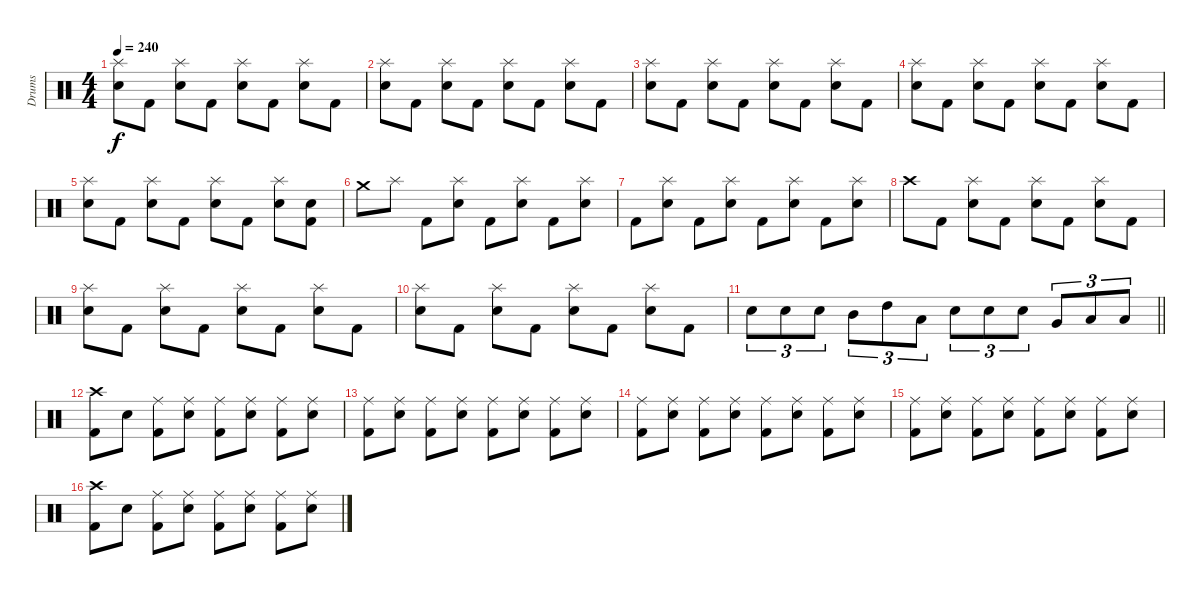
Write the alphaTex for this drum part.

\track ("Drums" "Drums") {instrument percussion}
\staff {score}
\articulation defaults
\ts (4 4)
\tempo 240
\clef neutral
\ks c
("Splash (hit)" "Electric Snare (hit)").8{dy f} "Kick (hit) 2".8 ("Splash (hit)" "Electric Snare (hit)").8 "Kick (hit) 2".8 ("Splash (hit)" "Electric Snare (hit)").8 "Kick (hit) 2".8 ("Splash (hit)" "Electric Snare (hit)").8 "Kick (hit) 2".8 |
("Splash (hit)" "Electric Snare (hit)").8 "Kick (hit) 2".8 ("Splash (hit)" "Electric Snare (hit)").8 "Kick (hit) 2".8 ("Splash (hit)" "Electric Snare (hit)").8 "Kick (hit) 2".8 ("Splash (hit)" "Electric Snare (hit)").8 "Kick (hit) 2".8 |
("Splash (hit)" "Electric Snare (hit)").8 "Kick (hit) 2".8 ("Splash (hit)" "Electric Snare (hit)").8 "Kick (hit) 2".8 ("Splash (hit)" "Electric Snare (hit)").8 "Kick (hit) 2".8 ("Splash (hit)" "Electric Snare (hit)").8 "Kick (hit) 2".8 |
("Splash (hit)" "Electric Snare (hit)").8 "Kick (hit) 2".8 ("Splash (hit)" "Electric Snare (hit)").8 "Kick (hit) 2".8 ("Splash (hit)" "Electric Snare (hit)").8 "Kick (hit) 2".8 ("Splash (hit)" "Electric Snare (hit)").8 "Kick (hit) 2".8 |
("Splash (hit)" "Electric Snare (hit)").8 "Kick (hit) 2".8 ("Splash (hit)" "Electric Snare (hit)").8 "Kick (hit) 2".8 ("Splash (hit)" "Electric Snare (hit)").8 "Kick (hit) 2".8 ("Splash (hit)" "Electric Snare (hit)").8 ("Electric Snare (hit)" "Kick (hit) 2").8 |
"Crash medium (hit)".8 "Splash (hit)".8 "Kick (hit) 2".8 ("Splash (hit)" "Electric Snare (hit)").8 "Kick (hit) 2".8 ("Splash (hit)" "Electric Snare (hit)").8 "Kick (hit) 2".8 ("Splash (hit)" "Electric Snare (hit)").8 |
"Kick (hit) 2".8 ("Splash (hit)" "Electric Snare (hit)").8 "Kick (hit) 2".8 ("Splash (hit)" "Electric Snare (hit)").8 "Kick (hit) 2".8 ("Splash (hit)" "Electric Snare (hit)").8 "Kick (hit) 2".8 ("Splash (hit)" "Electric Snare (hit)").8 |
"Crash high (hit)".8 "Kick (hit) 2".8 ("Splash (hit)" "Electric Snare (hit)").8 "Kick (hit) 2".8 ("Splash (hit)" "Electric Snare (hit)").8 "Kick (hit) 2".8 ("Splash (hit)" "Electric Snare (hit)").8 "Kick (hit) 2".8 |
("Splash (hit)" "Electric Snare (hit)").8 "Kick (hit) 2".8 ("Splash (hit)" "Electric Snare (hit)").8 "Kick (hit) 2".8 ("Splash (hit)" "Electric Snare (hit)").8 "Kick (hit) 2".8 ("Splash (hit)" "Electric Snare (hit)").8 "Kick (hit) 2".8 |
("Splash (hit)" "Electric Snare (hit)").8 "Kick (hit) 2".8 ("Splash (hit)" "Electric Snare (hit)").8 "Kick (hit) 2".8 ("Splash (hit)" "Electric Snare (hit)").8 "Kick (hit) 2".8 ("Splash (hit)" "Electric Snare (hit)").8 "Kick (hit) 2".8 |
\barLineRight lightlight "Electric Snare (hit)".8{tu (3 2)} "Electric Snare (hit)".8{tu (3 2)} "Electric Snare (hit)".8{tu (3 2)} "Mid Tom (hit)".8{tu (3 2)} "High Tom (hit)".8{tu (3 2)} "Low Tom (hit)".8{tu (3 2)} "Electric Snare (hit)".8{tu (3 2)} "Electric Snare (hit)".8{tu (3 2)} "Electric Snare (hit)".8{tu (3 2)} "Very Low Tom (hit)".8{tu (3 2)} "Low Tom (hit)".8{tu (3 2)} "Low Floor Tom (hit)".8{tu (3 2)}
|
("Crash high (hit)" "Kick (hit) 2").8 "Electric Snare (hit)".8 ("Ride (middle)" "Kick (hit) 2").8 ("Ride (middle)" "Electric Snare (hit)").8 ("Ride (middle)" "Kick (hit) 2").8 ("Ride (middle)" "Electric Snare (hit)").8 ("Ride (middle)" "Kick (hit) 2").8 ("Ride (middle)" "Electric Snare (hit)").8 |
("Ride (middle)" "Kick (hit) 2").8 ("Ride (middle)" "Electric Snare (hit)").8 ("Ride (middle)" "Kick (hit) 2").8 ("Ride (middle)" "Electric Snare (hit)").8 ("Ride (middle)" "Kick (hit) 2").8 ("Ride (middle)" "Electric Snare (hit)").8 ("Ride (middle)" "Kick (hit) 2").8 ("Ride (middle)" "Electric Snare (hit)").8 |
("Ride (middle)" "Kick (hit) 2").8 ("Ride (middle)" "Electric Snare (hit)").8 ("Ride (middle)" "Kick (hit) 2").8 ("Ride (middle)" "Electric Snare (hit)").8 ("Ride (middle)" "Kick (hit) 2").8 ("Ride (middle)" "Electric Snare (hit)").8 ("Ride (middle)" "Kick (hit) 2").8 ("Ride (middle)" "Electric Snare (hit)").8 |
("Ride (middle)" "Kick (hit) 2").8 ("Ride (middle)" "Electric Snare (hit)").8 ("Ride (middle)" "Kick (hit) 2").8 ("Ride (middle)" "Electric Snare (hit)").8 ("Ride (middle)" "Kick (hit) 2").8 ("Ride (middle)" "Electric Snare (hit)").8 ("Ride (middle)" "Kick (hit) 2").8 ("Ride (middle)" "Electric Snare (hit)").8 |
("Crash high (hit)" "Kick (hit) 2").8 "Electric Snare (hit)".8 ("Ride (middle)" "Kick (hit) 2").8 ("Ride (middle)" "Electric Snare (hit)").8 ("Ride (middle)" "Kick (hit) 2").8 ("Ride (middle)" "Electric Snare (hit)").8 ("Ride (middle)" "Kick (hit) 2").8 ("Ride (middle)" "Electric Snare (hit)").8
